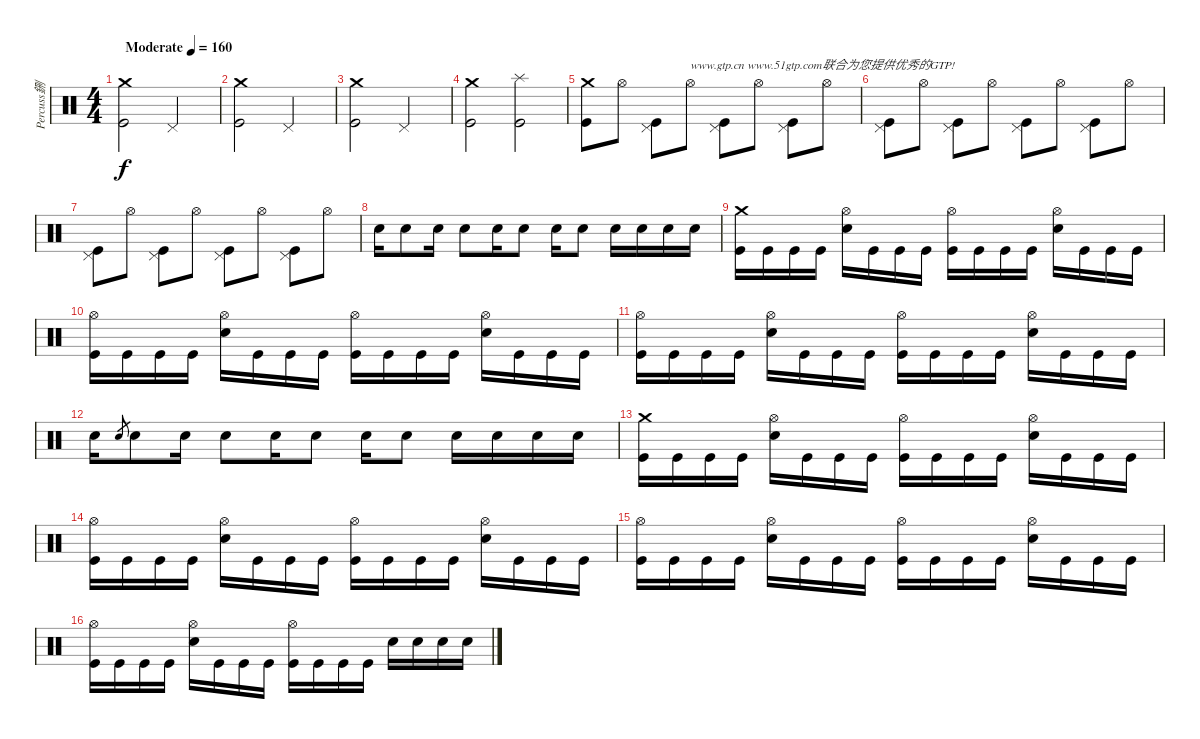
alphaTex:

\track ("Percuss鉶" "Percuss鉶") {instrument percussion}
\staff {score}
\articulation defaults
\ts (4 4)
\tempo (160 "Moderate")
\clef neutral
\ks c
("Crash medium (hit)" "Kick (hit)").2{dy f} "Pedal Hi-Hat (hit)".2 |
("Crash medium (hit)" "Kick (hit)").2 "Pedal Hi-Hat (hit)".2 |
("Crash medium (hit)" "Kick (hit)").2 "Pedal Hi-Hat (hit)".2 |
("Crash medium (hit)" "Kick (hit)").2 ("Splash (hit)" "Kick (hit)").2 |
("Crash medium (hit)" "Kick (hit)").8 "Hi-Hat (open)".8 ("Pedal Hi-Hat (hit)" "Kick (hit)").8 "Hi-Hat (open)".8{txt "www.gtp.cn www.51gtp.com联合为您提供优秀的GTP!"} ("Pedal Hi-Hat (hit)" "Kick (hit)").8 "Hi-Hat (open)".8 ("Pedal Hi-Hat (hit)" "Kick (hit)").8 "Hi-Hat (open)".8 |
("Pedal Hi-Hat (hit)" "Kick (hit)").8 "Hi-Hat (open)".8 ("Pedal Hi-Hat (hit)" "Kick (hit)").8 "Hi-Hat (open)".8 ("Pedal Hi-Hat (hit)" "Kick (hit)").8 "Hi-Hat (open)".8 ("Pedal Hi-Hat (hit)" "Kick (hit)").8 "Hi-Hat (open)".8 |
("Pedal Hi-Hat (hit)" "Kick (hit)").8 "Hi-Hat (open)".8 ("Pedal Hi-Hat (hit)" "Kick (hit)").8 "Hi-Hat (open)".8 ("Pedal Hi-Hat (hit)" "Kick (hit)").8 "Hi-Hat (open)".8 ("Pedal Hi-Hat (hit)" "Kick (hit)").8 "Hi-Hat (open)".8 |
"Electric Snare (hit)".16 "Electric Snare (hit)".8 "Electric Snare (hit)".16 "Electric Snare (hit)".8 "Electric Snare (hit)".16 "Electric Snare (hit)".8 "Electric Snare (hit)".16 "Electric Snare (hit)".8 "Electric Snare (hit)".16 "Electric Snare (hit)".16 "Electric Snare (hit)".16 "Electric Snare (hit)".16 |
("Crash medium (hit)" "Kick (hit)").16 "Kick (hit)".16 "Kick (hit)".16 "Kick (hit)".16 ("Hi-Hat (open)" "Electric Snare (hit)").16 "Kick (hit)".16 "Kick (hit)".16 "Kick (hit)".16 ("Hi-Hat (open)" "Kick (hit)").16 "Kick (hit)".16 "Kick (hit)".16 "Kick (hit)".16 ("Hi-Hat (open)" "Electric Snare (hit)").16 "Kick (hit)".16 "Kick (hit)".16 "Kick (hit)".16 |
("Hi-Hat (open)" "Kick (hit)").16 "Kick (hit)".16 "Kick (hit)".16 "Kick (hit)".16 ("Hi-Hat (open)" "Electric Snare (hit)").16 "Kick (hit)".16 "Kick (hit)".16 "Kick (hit)".16 ("Hi-Hat (open)" "Kick (hit)").16 "Kick (hit)".16 "Kick (hit)".16 "Kick (hit)".16 ("Hi-Hat (open)" "Electric Snare (hit)").16 "Kick (hit)".16 "Kick (hit)".16 "Kick (hit)".16 |
("Hi-Hat (open)" "Kick (hit)").16 "Kick (hit)".16 "Kick (hit)".16 "Kick (hit)".16 ("Hi-Hat (open)" "Electric Snare (hit)").16 "Kick (hit)".16 "Kick (hit)".16 "Kick (hit)".16 ("Hi-Hat (open)" "Kick (hit)").16 "Kick (hit)".16 "Kick (hit)".16 "Kick (hit)".16 ("Hi-Hat (open)" "Electric Snare (hit)").16 "Kick (hit)".16 "Kick (hit)".16 "Kick (hit)".16 |
"Electric Snare (hit)".16 "Electric Snare (hit)".8{gr} "Electric Snare (hit)".8 "Electric Snare (hit)".16 "Electric Snare (hit)".8 "Electric Snare (hit)".16 "Electric Snare (hit)".8 "Electric Snare (hit)".16 "Electric Snare (hit)".8 "Electric Snare (hit)".16 "Electric Snare (hit)".16 "Electric Snare (hit)".16 "Electric Snare (hit)".16 |
("Crash medium (hit)" "Kick (hit)").16 "Kick (hit)".16 "Kick (hit)".16 "Kick (hit)".16 ("Hi-Hat (open)" "Electric Snare (hit)").16 "Kick (hit)".16 "Kick (hit)".16 "Kick (hit)".16 ("Hi-Hat (open)" "Kick (hit)").16 "Kick (hit)".16 "Kick (hit)".16 "Kick (hit)".16 ("Hi-Hat (open)" "Electric Snare (hit)").16 "Kick (hit)".16 "Kick (hit)".16 "Kick (hit)".16 |
("Hi-Hat (open)" "Kick (hit)").16 "Kick (hit)".16 "Kick (hit)".16 "Kick (hit)".16 ("Hi-Hat (open)" "Electric Snare (hit)").16 "Kick (hit)".16 "Kick (hit)".16 "Kick (hit)".16 ("Hi-Hat (open)" "Kick (hit)").16 "Kick (hit)".16 "Kick (hit)".16 "Kick (hit)".16 ("Hi-Hat (open)" "Electric Snare (hit)").16 "Kick (hit)".16 "Kick (hit)".16 "Kick (hit)".16 |
("Hi-Hat (open)" "Kick (hit)").16 "Kick (hit)".16 "Kick (hit)".16 "Kick (hit)".16 ("Hi-Hat (open)" "Electric Snare (hit)").16 "Kick (hit)".16 "Kick (hit)".16 "Kick (hit)".16 ("Hi-Hat (open)" "Kick (hit)").16 "Kick (hit)".16 "Kick (hit)".16 "Kick (hit)".16 ("Hi-Hat (open)" "Electric Snare (hit)").16 "Kick (hit)".16 "Kick (hit)".16 "Kick (hit)".16 |
("Hi-Hat (open)" "Kick (hit)").16 "Kick (hit)".16 "Kick (hit)".16 "Kick (hit)".16 ("Hi-Hat (open)" "Electric Snare (hit)").16 "Kick (hit)".16 "Kick (hit)".16 "Kick (hit)".16 ("Hi-Hat (open)" "Kick (hit)").16 "Kick (hit)".16 "Kick (hit)".16 "Kick (hit)".16 "Electric Snare (hit)".16 "Electric Snare (hit)".16 "Electric Snare (hit)".16 "Electric Snare (hit)".16
